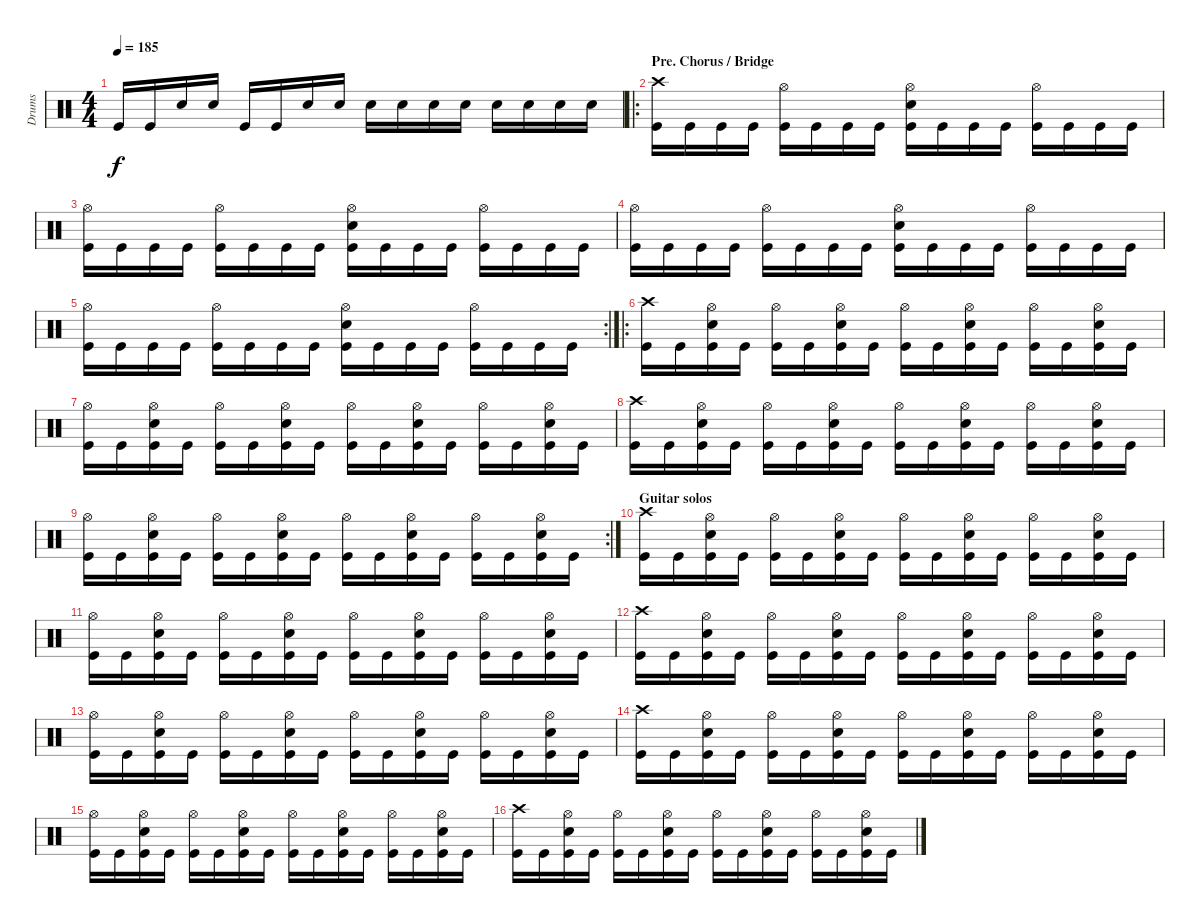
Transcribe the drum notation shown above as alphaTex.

\track ("Drums" "Drums") {instrument percussion}
\staff {score}
\articulation defaults
\ts (4 4)
\tempo 185
\clef neutral
\ks c "Kick (hit)".16{dy f} "Kick (hit)".16 "Electric Snare (hit)".16 "Electric Snare (hit)".16 "Kick (hit)".16 "Kick (hit)".16 "Electric Snare (hit)".16 "Electric Snare (hit)".16 "Electric Snare (hit)".16 "Electric Snare (hit)".16 "Electric Snare (hit)".16 "Electric Snare (hit)".16 "Electric Snare (hit)".16 "Electric Snare (hit)".16 "Electric Snare (hit)".16 "Electric Snare (hit)".16
|
\ro
\section ("" "Pre. Chorus / Bridge")
("Crash high (hit)" "Kick (hit)").16 "Kick (hit)".16 "Kick (hit)".16 "Kick (hit)".16 ("Hi-Hat (open)" "Kick (hit)").16 "Kick (hit)".16 "Kick (hit)".16 "Kick (hit)".16 ("Hi-Hat (open)" "Electric Snare (hit)" "Kick (hit)").16 "Kick (hit)".16 "Kick (hit)".16 "Kick (hit)".16 ("Hi-Hat (open)" "Kick (hit)").16 "Kick (hit)".16 "Kick (hit)".16 "Kick (hit)".16 |
("Hi-Hat (open)" "Kick (hit)").16 "Kick (hit)".16 "Kick (hit)".16 "Kick (hit)".16 ("Hi-Hat (open)" "Kick (hit)").16 "Kick (hit)".16 "Kick (hit)".16 "Kick (hit)".16 ("Hi-Hat (open)" "Electric Snare (hit)" "Kick (hit)").16 "Kick (hit)".16 "Kick (hit)".16 "Kick (hit)".16 ("Hi-Hat (open)" "Kick (hit)").16 "Kick (hit)".16 "Kick (hit)".16 "Kick (hit)".16 |
("Hi-Hat (open)" "Kick (hit)").16 "Kick (hit)".16 "Kick (hit)".16 "Kick (hit)".16 ("Hi-Hat (open)" "Kick (hit)").16 "Kick (hit)".16 "Kick (hit)".16 "Kick (hit)".16 ("Hi-Hat (open)" "Electric Snare (hit)" "Kick (hit)").16 "Kick (hit)".16 "Kick (hit)".16 "Kick (hit)".16 ("Hi-Hat (open)" "Kick (hit)").16 "Kick (hit)".16 "Kick (hit)".16 "Kick (hit)".16 |
\rc 2
("Hi-Hat (open)" "Kick (hit)").16 "Kick (hit)".16 "Kick (hit)".16 "Kick (hit)".16 ("Hi-Hat (open)" "Kick (hit)").16 "Kick (hit)".16 "Kick (hit)".16 "Kick (hit)".16 ("Hi-Hat (open)" "Electric Snare (hit)" "Kick (hit)").16 "Kick (hit)".16 "Kick (hit)".16 "Kick (hit)".16 ("Hi-Hat (open)" "Kick (hit)").16 "Kick (hit)".16 "Kick (hit)".16 "Kick (hit)".16 |
\ro
("Crash high (hit)" "Kick (hit)").16 "Kick (hit)".16 ("Hi-Hat (open)" "Electric Snare (hit)" "Kick (hit)").16 "Kick (hit)".16 ("Hi-Hat (open)" "Kick (hit)").16 "Kick (hit)".16 ("Hi-Hat (open)" "Electric Snare (hit)" "Kick (hit)").16 "Kick (hit)".16 ("Hi-Hat (open)" "Kick (hit)").16 "Kick (hit)".16 ("Hi-Hat (open)" "Electric Snare (hit)" "Kick (hit)").16 "Kick (hit)".16 ("Hi-Hat (open)" "Kick (hit)").16 "Kick (hit)".16 ("Hi-Hat (open)" "Electric Snare (hit)" "Kick (hit)").16 "Kick (hit)".16 |
("Hi-Hat (open)" "Kick (hit)").16 "Kick (hit)".16 ("Hi-Hat (open)" "Electric Snare (hit)" "Kick (hit)").16 "Kick (hit)".16 ("Hi-Hat (open)" "Kick (hit)").16 "Kick (hit)".16 ("Hi-Hat (open)" "Electric Snare (hit)" "Kick (hit)").16 "Kick (hit)".16 ("Hi-Hat (open)" "Kick (hit)").16 "Kick (hit)".16 ("Hi-Hat (open)" "Electric Snare (hit)" "Kick (hit)").16 "Kick (hit)".16 ("Hi-Hat (open)" "Kick (hit)").16 "Kick (hit)".16 ("Hi-Hat (open)" "Electric Snare (hit)" "Kick (hit)").16 "Kick (hit)".16 |
("Crash high (hit)" "Kick (hit)").16 "Kick (hit)".16 ("Hi-Hat (open)" "Electric Snare (hit)" "Kick (hit)").16 "Kick (hit)".16 ("Hi-Hat (open)" "Kick (hit)").16 "Kick (hit)".16 ("Hi-Hat (open)" "Electric Snare (hit)" "Kick (hit)").16 "Kick (hit)".16 ("Hi-Hat (open)" "Kick (hit)").16 "Kick (hit)".16 ("Hi-Hat (open)" "Electric Snare (hit)" "Kick (hit)").16 "Kick (hit)".16 ("Hi-Hat (open)" "Kick (hit)").16 "Kick (hit)".16 ("Hi-Hat (open)" "Electric Snare (hit)" "Kick (hit)").16 "Kick (hit)".16 |
\rc 2
("Hi-Hat (open)" "Kick (hit)").16 "Kick (hit)".16 ("Hi-Hat (open)" "Electric Snare (hit)" "Kick (hit)").16 "Kick (hit)".16 ("Hi-Hat (open)" "Kick (hit)").16 "Kick (hit)".16 ("Hi-Hat (open)" "Electric Snare (hit)" "Kick (hit)").16 "Kick (hit)".16 ("Hi-Hat (open)" "Kick (hit)").16 "Kick (hit)".16 ("Hi-Hat (open)" "Electric Snare (hit)" "Kick (hit)").16 "Kick (hit)".16 ("Hi-Hat (open)" "Kick (hit)").16 "Kick (hit)".16 ("Hi-Hat (open)" "Electric Snare (hit)" "Kick (hit)").16 "Kick (hit)".16 |
\section ("" "Guitar solos")
("Crash high (hit)" "Kick (hit)").16 "Kick (hit)".16 ("Hi-Hat (open)" "Electric Snare (hit)" "Kick (hit)").16 "Kick (hit)".16 ("Hi-Hat (open)" "Kick (hit)").16 "Kick (hit)".16 ("Hi-Hat (open)" "Electric Snare (hit)" "Kick (hit)").16 "Kick (hit)".16 ("Hi-Hat (open)" "Kick (hit)").16 "Kick (hit)".16 ("Hi-Hat (open)" "Electric Snare (hit)" "Kick (hit)").16 "Kick (hit)".16 ("Hi-Hat (open)" "Kick (hit)").16 "Kick (hit)".16 ("Hi-Hat (open)" "Electric Snare (hit)" "Kick (hit)").16 "Kick (hit)".16 |
("Hi-Hat (open)" "Kick (hit)").16 "Kick (hit)".16 ("Hi-Hat (open)" "Electric Snare (hit)" "Kick (hit)").16 "Kick (hit)".16 ("Hi-Hat (open)" "Kick (hit)").16 "Kick (hit)".16 ("Hi-Hat (open)" "Electric Snare (hit)" "Kick (hit)").16 "Kick (hit)".16 ("Hi-Hat (open)" "Kick (hit)").16 "Kick (hit)".16 ("Hi-Hat (open)" "Electric Snare (hit)" "Kick (hit)").16 "Kick (hit)".16 ("Hi-Hat (open)" "Kick (hit)").16 "Kick (hit)".16 ("Hi-Hat (open)" "Electric Snare (hit)" "Kick (hit)").16 "Kick (hit)".16 |
("Crash high (hit)" "Kick (hit)").16 "Kick (hit)".16 ("Hi-Hat (open)" "Electric Snare (hit)" "Kick (hit)").16 "Kick (hit)".16 ("Hi-Hat (open)" "Kick (hit)").16 "Kick (hit)".16 ("Hi-Hat (open)" "Electric Snare (hit)" "Kick (hit)").16 "Kick (hit)".16 ("Hi-Hat (open)" "Kick (hit)").16 "Kick (hit)".16 ("Hi-Hat (open)" "Electric Snare (hit)" "Kick (hit)").16 "Kick (hit)".16 ("Hi-Hat (open)" "Kick (hit)").16 "Kick (hit)".16 ("Hi-Hat (open)" "Electric Snare (hit)" "Kick (hit)").16 "Kick (hit)".16 |
("Hi-Hat (open)" "Kick (hit)").16 "Kick (hit)".16 ("Hi-Hat (open)" "Electric Snare (hit)" "Kick (hit)").16 "Kick (hit)".16 ("Hi-Hat (open)" "Kick (hit)").16 "Kick (hit)".16 ("Hi-Hat (open)" "Electric Snare (hit)" "Kick (hit)").16 "Kick (hit)".16 ("Hi-Hat (open)" "Kick (hit)").16 "Kick (hit)".16 ("Hi-Hat (open)" "Electric Snare (hit)" "Kick (hit)").16 "Kick (hit)".16 ("Hi-Hat (open)" "Kick (hit)").16 "Kick (hit)".16 ("Hi-Hat (open)" "Electric Snare (hit)" "Kick (hit)").16 "Kick (hit)".16 |
("Crash high (hit)" "Kick (hit)").16 "Kick (hit)".16 ("Hi-Hat (open)" "Electric Snare (hit)" "Kick (hit)").16 "Kick (hit)".16 ("Hi-Hat (open)" "Kick (hit)").16 "Kick (hit)".16 ("Hi-Hat (open)" "Electric Snare (hit)" "Kick (hit)").16 "Kick (hit)".16 ("Hi-Hat (open)" "Kick (hit)").16 "Kick (hit)".16 ("Hi-Hat (open)" "Electric Snare (hit)" "Kick (hit)").16 "Kick (hit)".16 ("Hi-Hat (open)" "Kick (hit)").16 "Kick (hit)".16 ("Hi-Hat (open)" "Electric Snare (hit)" "Kick (hit)").16 "Kick (hit)".16 |
("Hi-Hat (open)" "Kick (hit)").16 "Kick (hit)".16 ("Hi-Hat (open)" "Electric Snare (hit)" "Kick (hit)").16 "Kick (hit)".16 ("Hi-Hat (open)" "Kick (hit)").16 "Kick (hit)".16 ("Hi-Hat (open)" "Electric Snare (hit)" "Kick (hit)").16 "Kick (hit)".16 ("Hi-Hat (open)" "Kick (hit)").16 "Kick (hit)".16 ("Hi-Hat (open)" "Electric Snare (hit)" "Kick (hit)").16 "Kick (hit)".16 ("Hi-Hat (open)" "Kick (hit)").16 "Kick (hit)".16 ("Hi-Hat (open)" "Electric Snare (hit)" "Kick (hit)").16 "Kick (hit)".16 |
("Crash high (hit)" "Kick (hit)").16 "Kick (hit)".16 ("Hi-Hat (open)" "Electric Snare (hit)" "Kick (hit)").16 "Kick (hit)".16 ("Hi-Hat (open)" "Kick (hit)").16 "Kick (hit)".16 ("Hi-Hat (open)" "Electric Snare (hit)" "Kick (hit)").16 "Kick (hit)".16 ("Hi-Hat (open)" "Kick (hit)").16 "Kick (hit)".16 ("Hi-Hat (open)" "Electric Snare (hit)" "Kick (hit)").16 "Kick (hit)".16 ("Hi-Hat (open)" "Kick (hit)").16 "Kick (hit)".16 ("Hi-Hat (open)" "Electric Snare (hit)" "Kick (hit)").16 "Kick (hit)".16
